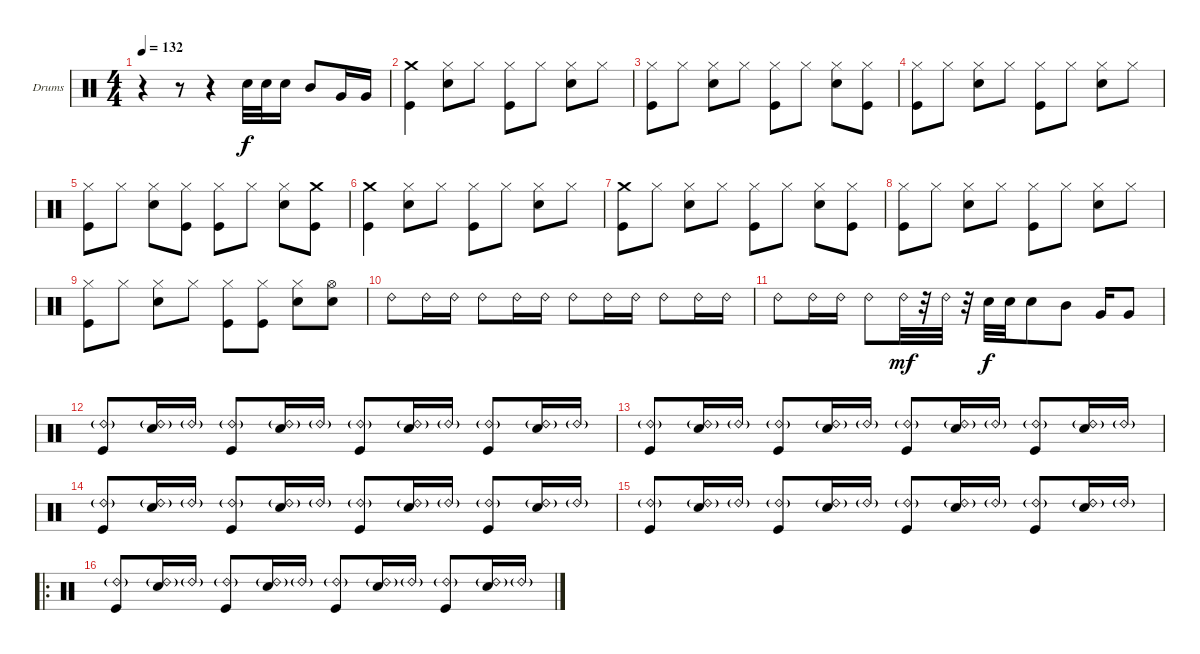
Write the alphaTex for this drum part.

\defaultSystemsLayout 4
\bracketExtendMode groupsimilarinstruments
\firstSystemTrackNameOrientation horizontal
\otherSystemsTrackNameOrientation horizontal
\track ("Drumkit" "Drums") {instrument percussion}
\staff {score}
\articulation defaults
\ts (4 4)
\tempo 132
\clef neutral
\ks c
r.4{dy f} r.8 r.4 "Snare (hit) 2".32 "Snare (hit) 2".32 "Snare (hit) 2".16 "Mid Tom (hit)".8 "Very Low Tom (hit)".16 "Very Low Tom (hit)".16 |
("Kick (hit)" "Crash medium (hit)").4 ("Snare (hit) 2" "Hi-Hat (closed)").8 "Hi-Hat (closed)".8 ("Kick (hit)" "Hi-Hat (closed)").8 "Hi-Hat (closed)".8 ("Snare (hit) 2" "Hi-Hat (closed)").8 "Hi-Hat (closed)".8 |
("Kick (hit)" "Hi-Hat (closed)").8 "Hi-Hat (closed)".8 ("Snare (hit) 2" "Hi-Hat (closed)").8 "Hi-Hat (closed)".8 ("Kick (hit)" "Hi-Hat (closed)").8 "Hi-Hat (closed)".8 ("Snare (hit) 2" "Hi-Hat (closed)").8 ("Kick (hit)" "Hi-Hat (closed)").8 |
("Kick (hit)" "Hi-Hat (closed)").8 "Hi-Hat (closed)".8 ("Snare (hit) 2" "Hi-Hat (closed)").8 "Hi-Hat (closed)".8 ("Kick (hit)" "Hi-Hat (closed)").8 "Hi-Hat (closed)".8 ("Snare (hit) 2" "Hi-Hat (closed)").8 "Hi-Hat (closed)".8 |
("Kick (hit)" "Hi-Hat (closed)").8 "Hi-Hat (closed)".8 ("Snare (hit) 2" "Hi-Hat (closed)").8 ("Kick (hit)" "Hi-Hat (closed)").8 ("Kick (hit)" "Hi-Hat (closed)").8 "Hi-Hat (closed)".8 ("Snare (hit) 2" "Hi-Hat (closed)").8 ("Kick (hit)" "Crash medium (hit)").8 |
("Kick (hit)" "Crash medium (hit)").4 ("Snare (hit) 2" "Hi-Hat (closed)").8 "Hi-Hat (closed)".8 ("Kick (hit)" "Hi-Hat (closed)").8 "Hi-Hat (closed)".8 ("Snare (hit) 2" "Hi-Hat (closed)").8 "Hi-Hat (closed)".8 |
("Kick (hit)" "Crash medium (hit)").8 "Hi-Hat (closed)".8 ("Snare (hit) 2" "Hi-Hat (closed)").8 "Hi-Hat (closed)".8 ("Kick (hit)" "Hi-Hat (closed)").8 "Hi-Hat (closed)".8 ("Snare (hit) 2" "Hi-Hat (closed)").8 ("Kick (hit)" "Hi-Hat (closed)").8 |
("Kick (hit)" "Hi-Hat (closed)").8 "Hi-Hat (closed)".8 ("Snare (hit) 2" "Hi-Hat (closed)").8 "Hi-Hat (closed)".8 ("Kick (hit)" "Hi-Hat (closed)").8 "Hi-Hat (closed)".8 ("Snare (hit) 2" "Hi-Hat (closed)").8 "Hi-Hat (closed)".8 |
("Kick (hit)" "Hi-Hat (closed)").8 "Hi-Hat (closed)".8 ("Snare (hit) 2" "Hi-Hat (closed)").8 "Hi-Hat (closed)".8 ("Kick (hit)" "Hi-Hat (closed)").8 ("Kick (hit)" "Hi-Hat (closed)").8 ("Snare (hit) 2" "Hi-Hat (closed)").8 ("Snare (hit) 2" "Hi-Hat (open)").8 |
"Ride (bell) 2".8 "Ride (bell) 2".16 "Ride (bell) 2".16 "Ride (bell) 2".8 "Ride (bell) 2".16 "Ride (bell) 2".16 "Ride (bell) 2".8 "Ride (bell) 2".16 "Ride (bell) 2".16 "Ride (bell) 2".8 "Ride (bell) 2".16 "Ride (bell) 2".16 |
"Ride (bell) 2".8 "Ride (bell) 2".16 "Ride (bell) 2".16 "Ride (bell) 2".8 "Ride (bell) 2".32{dy mf} r.32 "Ride (bell) 2".32 r.32 "Snare (hit) 2".32{dy f} "Snare (hit) 2".32 "Snare (hit) 2".8 "Mid Tom (hit)".8 "Very Low Tom (hit)".16 "Very Low Tom (hit)".8 |
("Ride (bell) 2"{g} "Kick (hit)").8 ("Ride (bell) 2"{g} "Snare (hit) 2").16 "Ride (bell) 2"{g}.16 ("Ride (bell) 2"{g} "Kick (hit)").8 ("Ride (bell) 2"{g} "Snare (hit) 2").16 "Ride (bell) 2"{g}.16 ("Ride (bell) 2"{g} "Kick (hit)").8 ("Ride (bell) 2"{g} "Snare (hit) 2").16 "Ride (bell) 2"{g}.16 ("Ride (bell) 2"{g} "Kick (hit)").8 ("Ride (bell) 2"{g} "Snare (hit) 2").16 "Ride (bell) 2"{g}.16 |
("Ride (bell) 2"{g} "Kick (hit)").8 ("Ride (bell) 2"{g} "Snare (hit) 2").16 "Ride (bell) 2"{g}.16 ("Ride (bell) 2"{g} "Kick (hit)").8 ("Ride (bell) 2"{g} "Snare (hit) 2").16 "Ride (bell) 2"{g}.16 ("Ride (bell) 2"{g} "Kick (hit)").8 ("Ride (bell) 2"{g} "Snare (hit) 2").16 "Ride (bell) 2"{g}.16 ("Ride (bell) 2"{g} "Kick (hit)").8 ("Ride (bell) 2"{g} "Snare (hit) 2").16 "Ride (bell) 2"{g}.16 |
("Ride (bell) 2"{g} "Kick (hit)").8 ("Ride (bell) 2"{g} "Snare (hit) 2").16 "Ride (bell) 2"{g}.16 ("Ride (bell) 2"{g} "Kick (hit)").8 ("Ride (bell) 2"{g} "Snare (hit) 2").16 "Ride (bell) 2"{g}.16 ("Ride (bell) 2"{g} "Kick (hit)").8 ("Ride (bell) 2"{g} "Snare (hit) 2").16 "Ride (bell) 2"{g}.16 ("Ride (bell) 2"{g} "Kick (hit)").8 ("Ride (bell) 2"{g} "Snare (hit) 2").16 "Ride (bell) 2"{g}.16 |
("Ride (bell) 2"{g} "Kick (hit)").8 ("Ride (bell) 2"{g} "Snare (hit) 2").16 "Ride (bell) 2"{g}.16 ("Ride (bell) 2"{g} "Kick (hit)").8 ("Ride (bell) 2"{g} "Snare (hit) 2").16 "Ride (bell) 2"{g}.16 ("Ride (bell) 2"{g} "Kick (hit)").8 ("Ride (bell) 2"{g} "Snare (hit) 2").16 "Ride (bell) 2"{g}.16 ("Ride (bell) 2"{g} "Kick (hit)").8 ("Ride (bell) 2"{g} "Snare (hit) 2").16 "Ride (bell) 2"{g}.16 |
\ro
("Ride (bell) 2"{g} "Kick (hit)").8 ("Ride (bell) 2"{g} "Snare (hit) 2").16 "Ride (bell) 2"{g}.16 ("Ride (bell) 2"{g} "Kick (hit)").8 ("Ride (bell) 2"{g} "Snare (hit) 2").16 "Ride (bell) 2"{g}.16 ("Ride (bell) 2"{g} "Kick (hit)").8 ("Ride (bell) 2"{g} "Snare (hit) 2").16 "Ride (bell) 2"{g}.16 ("Ride (bell) 2"{g} "Kick (hit)").8 ("Ride (bell) 2"{g} "Snare (hit) 2").16 "Ride (bell) 2"{g}.16
